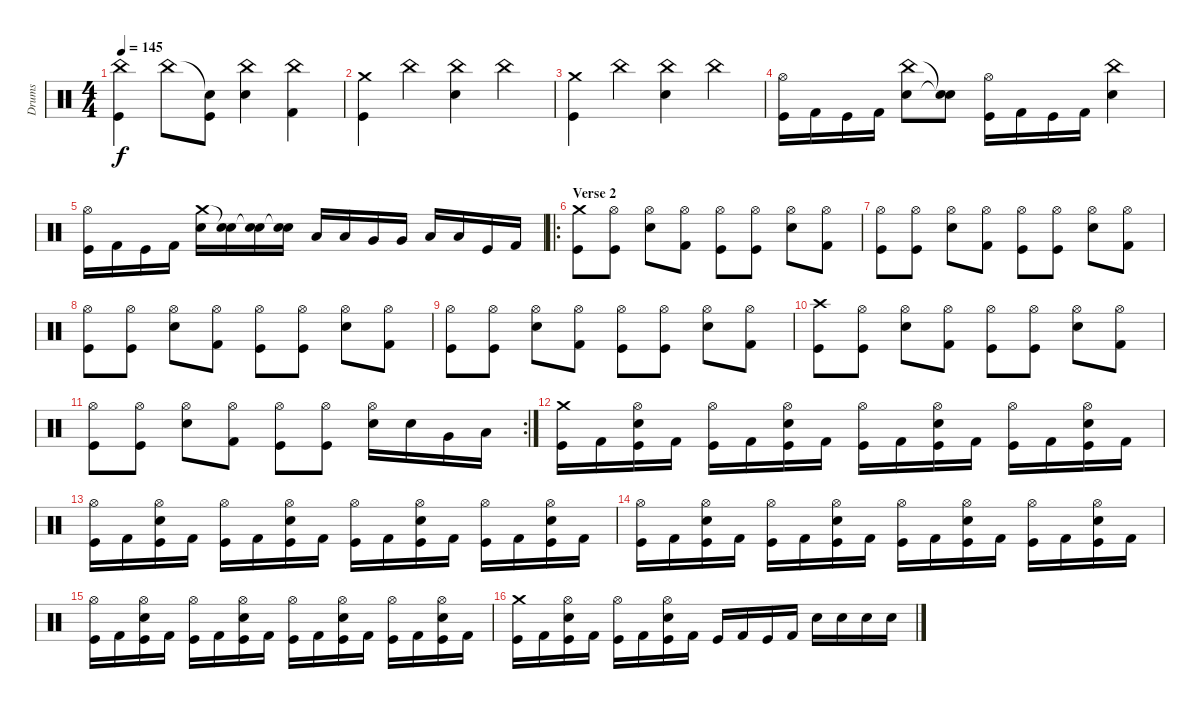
\track ("Drums" "Drums") {instrument percussion}
\staff {score}
\articulation defaults
\ts (4 4)
\tempo 145
\clef neutral
\ks c
("China (hit)" "Kick (hit)").4{dy f} "China (hit)".8 ("Snare (hit)"{t} "Kick (hit)").8 ("China (hit)" "Electric Snare (hit)").4 ("China (hit)" "Kick (hit) 2").4 |
("Crash medium (hit)" "Kick (hit)").4 "China (hit)".4 ("China (hit)" "Electric Snare (hit)").4 "China (hit)".4 |
("Crash medium (hit)" "Kick (hit)").4 "China (hit)".4 ("China (hit)" "Electric Snare (hit)").4 "China (hit)".4 |
("Hi-Hat (open)" "Kick (hit)").16 "Kick (hit) 2".16 "Kick (hit)".16 "Kick (hit) 2".16 ("China (hit)" "Electric Snare (hit)").8 ("Snare (hit)"{t} "Snare (hit)"{t}).8 ("Hi-Hat (open)" "Kick (hit)").16 "Kick (hit) 2".16 "Kick (hit)".16 "Kick (hit) 2".16 ("China (hit)" "Electric Snare (hit)").4 |
("Hi-Hat (open)" "Kick (hit)").16 "Kick (hit) 2".16 "Kick (hit)".16 "Kick (hit) 2".16 ("Crash medium (hit)" "Electric Snare (hit)").16 ("Snare (hit)"{t} "Electric Snare (hit)").16 ("Snare (hit)"{t} "Electric Snare (hit)").16 ("Snare (hit)"{t} "Electric Snare (hit)").16 "Low Tom (hit)".16 "Low Tom (hit)".16 "Very Low Tom (hit)".16 "Very Low Tom (hit)".16 "Low Floor Tom (hit)".16 "Low Floor Tom (hit)".16 "Kick (hit)".16 "Kick (hit) 2".16 |
\ro
\section ("" "Verse 2")
("Crash medium (hit)" "Kick (hit)").8 ("Hi-Hat (open)" "Kick (hit)").8 ("Hi-Hat (open)" "Electric Snare (hit)").8 ("Hi-Hat (open)" "Kick (hit) 2").8 ("Hi-Hat (open)" "Kick (hit)").8 ("Hi-Hat (open)" "Kick (hit)").8 ("Hi-Hat (open)" "Electric Snare (hit)").8 ("Hi-Hat (open)" "Kick (hit) 2").8 |
("Hi-Hat (open)" "Kick (hit)").8 ("Hi-Hat (open)" "Kick (hit)").8 ("Hi-Hat (open)" "Electric Snare (hit)").8 ("Hi-Hat (open)" "Kick (hit) 2").8 ("Hi-Hat (open)" "Kick (hit)").8 ("Hi-Hat (open)" "Kick (hit)").8 ("Hi-Hat (open)" "Electric Snare (hit)").8 ("Hi-Hat (open)" "Kick (hit) 2").8 |
("Hi-Hat (open)" "Kick (hit)").8 ("Hi-Hat (open)" "Kick (hit)").8 ("Hi-Hat (open)" "Electric Snare (hit)").8 ("Hi-Hat (open)" "Kick (hit) 2").8 ("Hi-Hat (open)" "Kick (hit)").8 ("Hi-Hat (open)" "Kick (hit)").8 ("Hi-Hat (open)" "Electric Snare (hit)").8 ("Hi-Hat (open)" "Kick (hit) 2").8 |
("Hi-Hat (open)" "Kick (hit)").8 ("Hi-Hat (open)" "Kick (hit)").8 ("Hi-Hat (open)" "Electric Snare (hit)").8 ("Hi-Hat (open)" "Kick (hit) 2").8 ("Hi-Hat (open)" "Kick (hit)").8 ("Hi-Hat (open)" "Kick (hit)").8 ("Hi-Hat (open)" "Electric Snare (hit)").8 ("Hi-Hat (open)" "Kick (hit) 2").8 |
("Crash high (hit)" "Kick (hit)").8 ("Hi-Hat (open)" "Kick (hit)").8 ("Hi-Hat (open)" "Electric Snare (hit)").8 ("Hi-Hat (open)" "Kick (hit) 2").8 ("Hi-Hat (open)" "Kick (hit)").8 ("Hi-Hat (open)" "Kick (hit)").8 ("Hi-Hat (open)" "Electric Snare (hit)").8 ("Hi-Hat (open)" "Kick (hit) 2").8 |
\rc 2
("Hi-Hat (open)" "Kick (hit)").8 ("Hi-Hat (open)" "Kick (hit)").8 ("Hi-Hat (open)" "Electric Snare (hit)").8 ("Hi-Hat (open)" "Kick (hit) 2").8 ("Hi-Hat (open)" "Kick (hit)").8 ("Hi-Hat (open)" "Kick (hit)").8 ("Hi-Hat (open)" "Electric Snare (hit)").16 "Electric Snare (hit)".16 "Very Low Tom (hit)".16 "Low Floor Tom (hit)".16 |
("Crash medium (hit)" "Kick (hit)").16 "Kick (hit) 2".16 ("Hi-Hat (open)" "Electric Snare (hit)" "Kick (hit)").16 "Kick (hit) 2".16 ("Hi-Hat (open)" "Kick (hit)").16 "Kick (hit) 2".16 ("Hi-Hat (open)" "Electric Snare (hit)" "Kick (hit)").16 "Kick (hit) 2".16 ("Hi-Hat (open)" "Kick (hit)").16 "Kick (hit) 2".16 ("Hi-Hat (open)" "Electric Snare (hit)" "Kick (hit)").16 "Kick (hit) 2".16 ("Hi-Hat (open)" "Kick (hit)").16 "Kick (hit) 2".16 ("Hi-Hat (open)" "Electric Snare (hit)" "Kick (hit)").16 "Kick (hit) 2".16 |
("Hi-Hat (open)" "Kick (hit)").16 "Kick (hit) 2".16 ("Hi-Hat (open)" "Electric Snare (hit)" "Kick (hit)").16 "Kick (hit) 2".16 ("Hi-Hat (open)" "Kick (hit)").16 "Kick (hit) 2".16 ("Hi-Hat (open)" "Electric Snare (hit)" "Kick (hit)").16 "Kick (hit) 2".16 ("Hi-Hat (open)" "Kick (hit)").16 "Kick (hit) 2".16 ("Hi-Hat (open)" "Electric Snare (hit)" "Kick (hit)").16 "Kick (hit) 2".16 ("Hi-Hat (open)" "Kick (hit)").16 "Kick (hit) 2".16 ("Hi-Hat (open)" "Electric Snare (hit)" "Kick (hit)").16 "Kick (hit) 2".16 |
("Hi-Hat (open)" "Kick (hit)").16 "Kick (hit) 2".16 ("Hi-Hat (open)" "Electric Snare (hit)" "Kick (hit)").16 "Kick (hit) 2".16 ("Hi-Hat (open)" "Kick (hit)").16 "Kick (hit) 2".16 ("Hi-Hat (open)" "Electric Snare (hit)" "Kick (hit)").16 "Kick (hit) 2".16 ("Hi-Hat (open)" "Kick (hit)").16 "Kick (hit) 2".16 ("Hi-Hat (open)" "Electric Snare (hit)" "Kick (hit)").16 "Kick (hit) 2".16 ("Hi-Hat (open)" "Kick (hit)").16 "Kick (hit) 2".16 ("Hi-Hat (open)" "Electric Snare (hit)" "Kick (hit)").16 "Kick (hit) 2".16 |
("Hi-Hat (open)" "Kick (hit)").16 "Kick (hit) 2".16 ("Hi-Hat (open)" "Electric Snare (hit)" "Kick (hit)").16 "Kick (hit) 2".16 ("Hi-Hat (open)" "Kick (hit)").16 "Kick (hit) 2".16 ("Hi-Hat (open)" "Electric Snare (hit)" "Kick (hit)").16 "Kick (hit) 2".16 ("Hi-Hat (open)" "Kick (hit)").16 "Kick (hit) 2".16 ("Hi-Hat (open)" "Electric Snare (hit)" "Kick (hit)").16 "Kick (hit) 2".16 ("Hi-Hat (open)" "Kick (hit)").16 "Kick (hit) 2".16 ("Hi-Hat (open)" "Electric Snare (hit)" "Kick (hit)").16 "Kick (hit) 2".16 |
("Crash medium (hit)" "Kick (hit)").16 "Kick (hit) 2".16 ("Hi-Hat (open)" "Electric Snare (hit)" "Kick (hit)").16 "Kick (hit) 2".16 ("Hi-Hat (open)" "Kick (hit)").16 "Kick (hit) 2".16 ("Hi-Hat (open)" "Electric Snare (hit)" "Kick (hit)").16 "Kick (hit) 2".16 "Kick (hit)".16 "Kick (hit) 2".16 "Kick (hit)".16 "Kick (hit) 2".16 "Electric Snare (hit)".16 "Electric Snare (hit)".16 "Electric Snare (hit)".16 "Electric Snare (hit)".16
